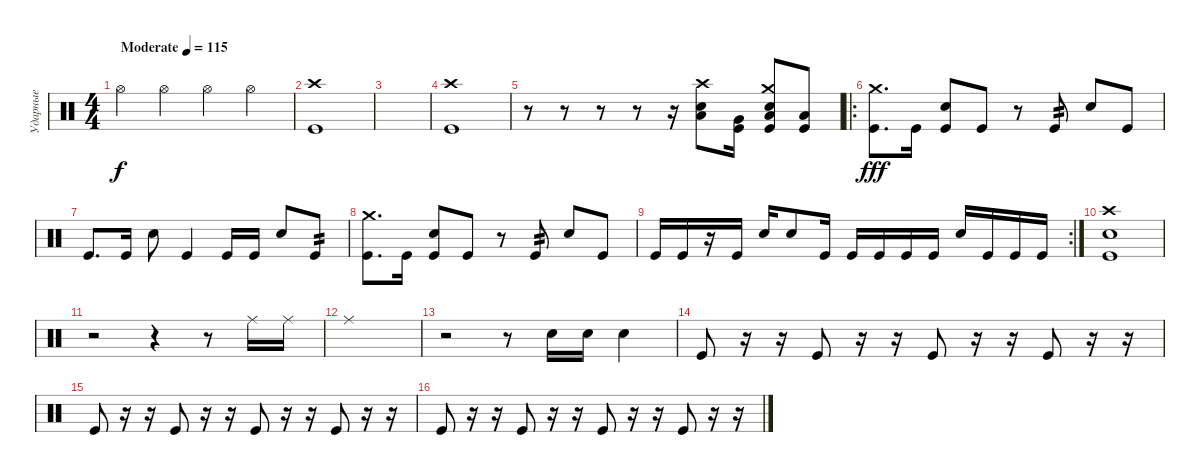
\track ("Ударные" "Ударные") {instrument percussion}
\staff {score}
\articulation defaults
\ts (4 4)
\tempo (115 "Moderate")
\clef neutral
\ks c "Hi-Hat (open)".4{dy f} "Hi-Hat (open)".4 "Hi-Hat (open)".4 "Hi-Hat (open)".4
|
("Crash high (hit)" "Kick (hit)").1 |
|
("Crash high (hit)" "Kick (hit)").1 |
r.8 r.8 r.8 r.8 r.16 ("Crash high (hit)" "Low Tom (hit)" "Electric Snare (hit)").8 ("Very Low Tom (hit)" "Kick (hit)").16 ("Crash medium (hit)" "Low Floor Tom (hit)" "Electric Snare (hit)" "Kick (hit)").8 ("Low Floor Tom (hit)" "Kick (hit)").8 |
\ro
("Crash medium (hit)" "Kick (hit)").8{d dy fff} "Kick (hit)".16 ("Electric Snare (hit)" "Kick (hit)").8 "Kick (hit)".8 r.8 "Kick (hit)".8{tp 2} "Electric Snare (hit)".8 "Kick (hit)".8 |
"Kick (hit)".8{d} "Kick (hit)".16 "Electric Snare (hit)".8 "Kick (hit)".4 "Kick (hit)".16 "Kick (hit)".16 "Electric Snare (hit)".8 "Kick (hit)".8{tp 2} |
("Crash medium (hit)" "Kick (hit)").8{d} "Kick (hit)".16 ("Electric Snare (hit)" "Kick (hit)").8 "Kick (hit)".8 r.8 "Kick (hit)".8{tp 2} "Electric Snare (hit)".8 "Kick (hit)".8 |
\rc 2 "Kick (hit)".16 "Kick (hit)".16
r.16 "Kick (hit)".16 "Electric Snare (hit)".16 "Electric Snare (hit)".8 "Kick (hit)".16 "Kick (hit)".16 "Kick (hit)".16 "Kick (hit)".16 "Kick (hit)".16 "Electric Snare (hit)".16 "Kick (hit)".16 "Kick (hit)".16 "Kick (hit)".16 |
("Crash high (hit)" "Electric Snare (hit)" "Kick (hit)").1 |
r.2 r.4 r.8 "Ride (middle)".16 "Ride (middle)".16 |
"Ride (middle)".1 |
r.2 r.8 "Electric Snare (hit)".16 "Electric Snare (hit)".16 "Electric Snare (hit)".4 |
"Kick (hit)".8 r.16 r.16 "Kick (hit)".8 r.16 r.16 "Kick (hit)".8 r.16 r.16 "Kick (hit)".8 r.16 r.16 |
"Kick (hit)".8 r.16 r.16 "Kick (hit)".8 r.16 r.16 "Kick (hit)".8 r.16 r.16 "Kick (hit)".8 r.16 r.16 |
"Kick (hit)".8 r.16 r.16 "Kick (hit)".8 r.16 r.16 "Kick (hit)".8 r.16 r.16 "Kick (hit)".8 r.16 r.16
